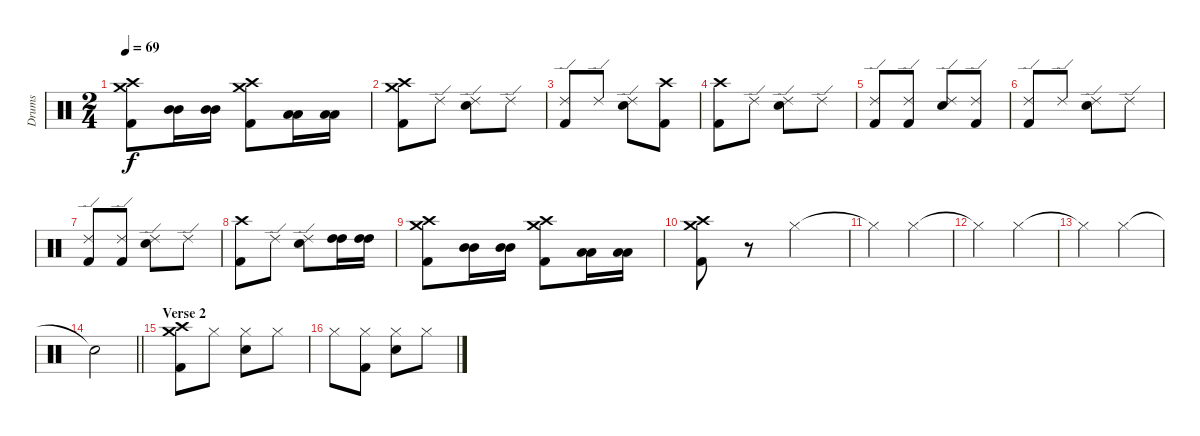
\track ("Drums" "Drums") {instrument percussion}
\staff {score}
\articulation defaults
\ts (2 4)
\tempo 69
\clef neutral
\ks c
("Kick (hit) 2" "Crash high (hit)" "Crash medium (hit)").8{dy f} ("Mid Tom (hit)" "Mid Tom (hit)").16 ("Mid Tom (hit)" "Mid Tom (hit)").16 ("Kick (hit) 2" "Crash high (hit)" "Crash medium (hit)").8 ("Low Tom (hit)" "Low Tom (hit)").16 ("Low Tom (hit)" "Low Tom (hit)").16 |
("Kick (hit) 2" "Crash high (hit)" "Crash medium (hit)").8 "Ride (edge) 2".8 ("Electric Snare (hit)" "Ride (edge) 2").8 "Ride (edge) 2".8 |
("Kick (hit) 2" "Ride (edge) 2").8 "Ride (edge) 2".8 ("Electric Snare (hit)" "Ride (edge) 2").8 ("Kick (hit) 2" "Crash high (hit)").8 |
("Kick (hit) 2" "Crash high (hit)").8 "Ride (edge) 2".8 ("Electric Snare (hit)" "Ride (edge) 2").8 "Ride (edge) 2".8 |
("Kick (hit) 2" "Ride (edge) 2").8 ("Kick (hit) 2" "Ride (edge) 2").8 ("Electric Snare (hit)" "Ride (edge) 2").8 ("Kick (hit) 2" "Ride (edge) 2").8 |
("Kick (hit) 2" "Ride (edge) 2").8 "Ride (edge) 2".8 ("Electric Snare (hit)" "Ride (edge) 2").8 "Ride (edge) 2".8 |
("Kick (hit) 2" "Ride (edge) 2").8 ("Kick (hit) 2" "Ride (edge) 2").8 ("Electric Snare (hit)" "Ride (edge) 2").8 "Ride (edge) 2".8 |
("Kick (hit) 2" "Crash high (hit)").8 "Ride (edge) 2".8 ("Electric Snare (hit)" "Ride (edge) 2").8 ("High Tom (hit)" "High Tom (hit)").16 ("High Tom (hit)" "High Tom (hit)").16 |
("Kick (hit) 2" "Crash high (hit)" "Crash medium (hit)").8 ("Mid Tom (hit)" "Mid Tom (hit)").16 ("Mid Tom (hit)" "Mid Tom (hit)").16 ("Kick (hit) 2" "Crash high (hit)" "Crash medium (hit)").8 ("Low Tom (hit)" "Low Tom (hit)").16 ("Low Tom (hit)" "Low Tom (hit)").16 |
("Kick (hit) 2" "Crash high (hit)" "Crash medium (hit)").8 r.8 "Hi-Hat (closed)".4 |
"Hi-Hat (closed)"{t}.4 "Hi-Hat (closed)".4 |
"Hi-Hat (closed)"{t}.4 "Hi-Hat (closed)".4 |
"Hi-Hat (closed)"{t}.4 "Hi-Hat (closed)".4 |
\barLineRight lightlight "Snare (hit)"{t}.2
|
\section ("" "Verse 2")
("Kick (hit) 2" "Crash high (hit)" "Crash medium (hit)").8 "Hi-Hat (closed)".8 ("Electric Snare (hit)" "Hi-Hat (closed)").8 "Hi-Hat (closed)".8 |
"Hi-Hat (closed)".8 ("Kick (hit) 2" "Hi-Hat (closed)").8 ("Electric Snare (hit)" "Hi-Hat (closed)").8 "Hi-Hat (closed)".8
